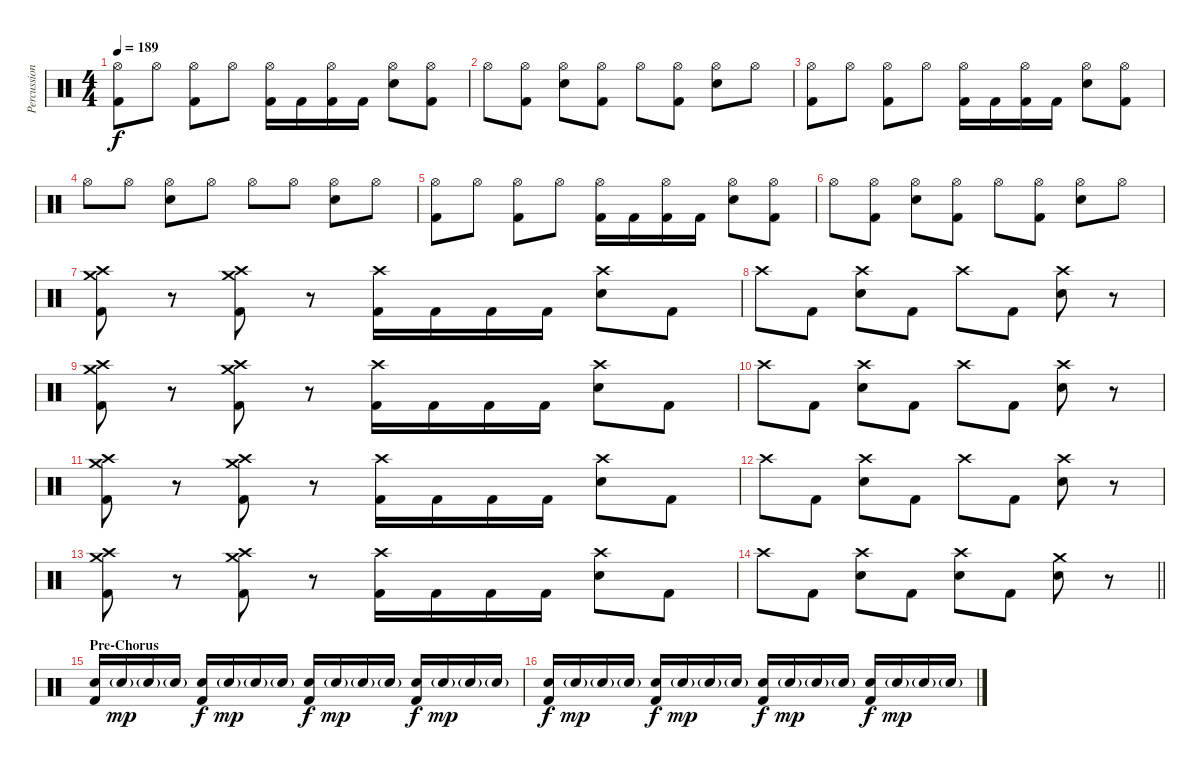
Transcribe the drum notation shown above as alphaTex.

\track ("Percussion" "Percussion") {instrument percussion}
\staff {score}
\articulation defaults
\ts (4 4)
\tempo 189
\clef neutral
\ks c
("Hi-Hat (open)" "Kick (hit) 2").8{dy f} "Hi-Hat (open)".8 ("Hi-Hat (open)" "Kick (hit) 2").8 "Hi-Hat (open)".8 ("Hi-Hat (open)" "Kick (hit) 2").16 "Kick (hit) 2".16 ("Hi-Hat (open)" "Kick (hit) 2").16 "Kick (hit) 2".16 ("Hi-Hat (open)" "Electric Snare (hit)").8 ("Hi-Hat (open)" "Kick (hit) 2").8 |
"Hi-Hat (open)".8 ("Hi-Hat (open)" "Kick (hit) 2").8 ("Hi-Hat (open)" "Electric Snare (hit)").8 ("Hi-Hat (open)" "Kick (hit) 2").8 "Hi-Hat (open)".8 ("Hi-Hat (open)" "Kick (hit) 2").8 ("Hi-Hat (open)" "Electric Snare (hit)").8 "Hi-Hat (open)".8 |
("Hi-Hat (open)" "Kick (hit) 2").8 "Hi-Hat (open)".8 ("Hi-Hat (open)" "Kick (hit) 2").8 "Hi-Hat (open)".8 ("Hi-Hat (open)" "Kick (hit) 2").16 "Kick (hit) 2".16 ("Hi-Hat (open)" "Kick (hit) 2").16 "Kick (hit) 2".16 ("Hi-Hat (open)" "Electric Snare (hit)").8 ("Hi-Hat (open)" "Kick (hit) 2").8 |
"Hi-Hat (open)".8 "Hi-Hat (open)".8 ("Hi-Hat (open)" "Electric Snare (hit)").8 "Hi-Hat (open)".8 "Hi-Hat (open)".8 "Hi-Hat (open)".8 ("Hi-Hat (open)" "Electric Snare (hit)").8 "Hi-Hat (open)".8 |
("Hi-Hat (open)" "Kick (hit) 2").8 "Hi-Hat (open)".8 ("Hi-Hat (open)" "Kick (hit) 2").8 "Hi-Hat (open)".8 ("Hi-Hat (open)" "Kick (hit) 2").16 "Kick (hit) 2".16 ("Hi-Hat (open)" "Kick (hit) 2").16 "Kick (hit) 2".16 ("Hi-Hat (open)" "Electric Snare (hit)").8 ("Hi-Hat (open)" "Kick (hit) 2").8 |
"Hi-Hat (open)".8 ("Hi-Hat (open)" "Kick (hit) 2").8 ("Hi-Hat (open)" "Electric Snare (hit)").8 ("Hi-Hat (open)" "Kick (hit) 2").8 "Hi-Hat (open)".8 ("Hi-Hat (open)" "Kick (hit) 2").8 ("Hi-Hat (open)" "Electric Snare (hit)").8 "Hi-Hat (open)".8 |
("Crash medium (hit)" "Crash high (hit)" "Kick (hit) 2").8 r.8 ("Crash medium (hit)" "Crash high (hit)" "Kick (hit) 2").8 r.8 ("Crash high (hit)" "Kick (hit) 2").16 "Kick (hit) 2".16 "Kick (hit) 2".16 "Kick (hit) 2".16 ("Crash high (hit)" "Electric Snare (hit)").8 "Kick (hit) 2".8 |
"Crash high (hit)".8 "Kick (hit) 2".8 ("Crash high (hit)" "Electric Snare (hit)").8 "Kick (hit) 2".8 "Crash high (hit)".8 "Kick (hit) 2".8 ("Crash high (hit)" "Electric Snare (hit)").8 r.8 |
("Crash medium (hit)" "Crash high (hit)" "Kick (hit) 2").8 r.8 ("Crash medium (hit)" "Crash high (hit)" "Kick (hit) 2").8 r.8 ("Crash high (hit)" "Kick (hit) 2").16 "Kick (hit) 2".16 "Kick (hit) 2".16 "Kick (hit) 2".16 ("Crash high (hit)" "Electric Snare (hit)").8 "Kick (hit) 2".8 |
"Crash high (hit)".8 "Kick (hit) 2".8 ("Crash high (hit)" "Electric Snare (hit)").8 "Kick (hit) 2".8 "Crash high (hit)".8 "Kick (hit) 2".8 ("Crash high (hit)" "Electric Snare (hit)").8 r.8 |
("Crash medium (hit)" "Crash high (hit)" "Kick (hit) 2").8 r.8 ("Crash medium (hit)" "Crash high (hit)" "Kick (hit) 2").8 r.8 ("Crash high (hit)" "Kick (hit) 2").16 "Kick (hit) 2".16 "Kick (hit) 2".16 "Kick (hit) 2".16 ("Crash high (hit)" "Electric Snare (hit)").8 "Kick (hit) 2".8 |
"Crash high (hit)".8 "Kick (hit) 2".8 ("Crash high (hit)" "Electric Snare (hit)").8 "Kick (hit) 2".8 "Crash high (hit)".8 "Kick (hit) 2".8 ("Crash high (hit)" "Electric Snare (hit)").8 r.8 |
("Crash medium (hit)" "Crash high (hit)" "Kick (hit) 2").8 r.8 ("Crash medium (hit)" "Crash high (hit)" "Kick (hit) 2").8 r.8 ("Crash high (hit)" "Kick (hit) 2").16 "Kick (hit) 2".16 "Kick (hit) 2".16 "Kick (hit) 2".16 ("Crash high (hit)" "Electric Snare (hit)").8 "Kick (hit) 2".8 |
\barLineRight lightlight "Crash high (hit)".8 "Kick (hit) 2".8
("Crash high (hit)" "Electric Snare (hit)").8 "Kick (hit) 2".8 ("Crash high (hit)" "Electric Snare (hit)").8 "Kick (hit) 2".8 ("Crash medium (hit)" "Electric Snare (hit)").8 r.8 |
\section ("" "Pre-Chorus")
("Electric Snare (hit)" "Kick (hit) 2").16 "Electric Snare (hit)"{g}.16{dy mp} "Electric Snare (hit)"{g}.16 "Electric Snare (hit)"{g}.16 ("Electric Snare (hit)" "Kick (hit) 2").16{dy f} "Electric Snare (hit)"{g}.16{dy mp} "Electric Snare (hit)"{g}.16 "Electric Snare (hit)"{g}.16 ("Electric Snare (hit)" "Kick (hit) 2").16{dy f} "Electric Snare (hit)"{g}.16{dy mp} "Electric Snare (hit)"{g}.16 "Electric Snare (hit)"{g}.16 ("Electric Snare (hit)" "Kick (hit) 2").16{dy f} "Electric Snare (hit)"{g}.16{dy mp} "Electric Snare (hit)"{g}.16 "Electric Snare (hit)"{g}.16 |
("Electric Snare (hit)" "Kick (hit) 2").16{dy f} "Electric Snare (hit)"{g}.16{dy mp} "Electric Snare (hit)"{g}.16 "Electric Snare (hit)"{g}.16 ("Electric Snare (hit)" "Kick (hit) 2").16{dy f} "Electric Snare (hit)"{g}.16{dy mp} "Electric Snare (hit)"{g}.16 "Electric Snare (hit)"{g}.16 ("Electric Snare (hit)" "Kick (hit) 2").16{dy f} "Electric Snare (hit)"{g}.16{dy mp} "Electric Snare (hit)"{g}.16 "Electric Snare (hit)"{g}.16 ("Electric Snare (hit)" "Kick (hit) 2").16{dy f} "Electric Snare (hit)"{g}.16{dy mp} "Electric Snare (hit)"{g}.16 "Electric Snare (hit)"{g}.16
